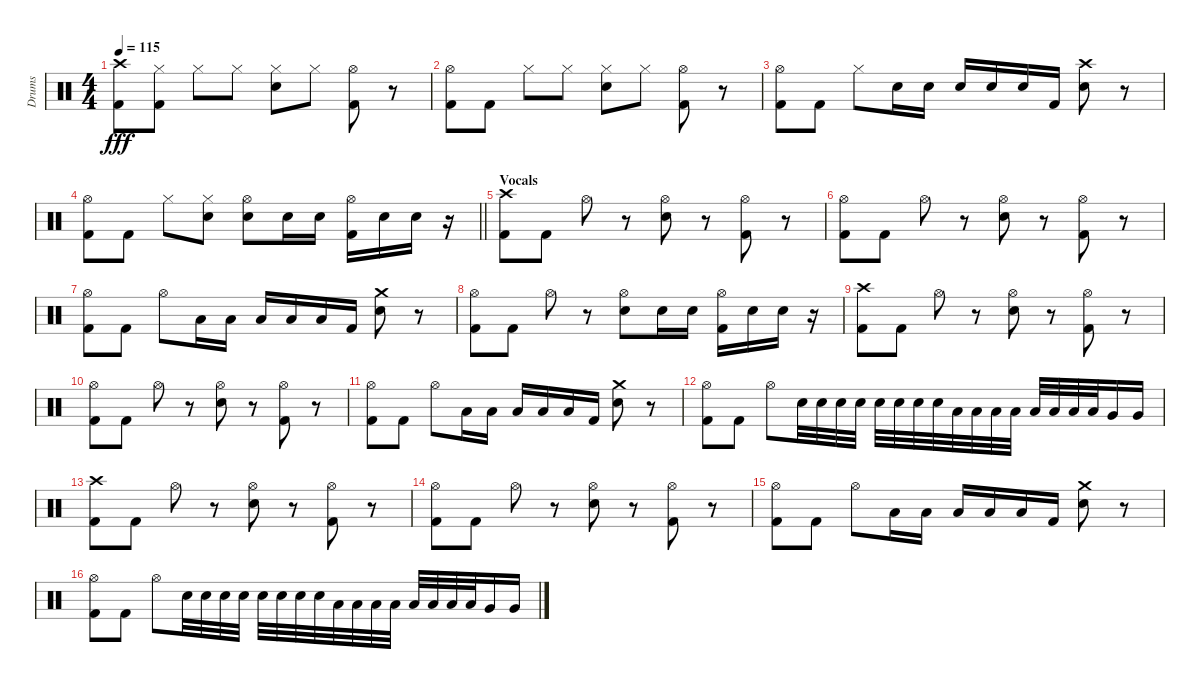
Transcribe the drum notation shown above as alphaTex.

\track ("Drums" "Drums") {instrument percussion}
\staff {score}
\articulation defaults
\ts (4 4)
\tempo 115
\clef neutral
\ks c
("Crash high (hit)" "Kick (hit) 2").8{dy fff} ("Hi-Hat (closed)" "Kick (hit) 2").8 "Hi-Hat (closed)".8 "Hi-Hat (closed)".8 ("Hi-Hat (closed)" "Electric Snare (hit)").8 "Hi-Hat (closed)".8 ("Hi-Hat (open)" "Kick (hit) 2").8 r.8 |
("Hi-Hat (open)" "Kick (hit) 2").8 "Kick (hit) 2".8 "Hi-Hat (closed)".8 "Hi-Hat (closed)".8 ("Hi-Hat (closed)" "Electric Snare (hit)").8 "Hi-Hat (closed)".8 ("Hi-Hat (open)" "Kick (hit) 2").8 r.8 |
("Hi-Hat (open)" "Kick (hit) 2").8 "Kick (hit) 2".8 "Hi-Hat (closed)".8 "Electric Snare (hit)".16 "Electric Snare (hit)".16 "Electric Snare (hit)".16 "Electric Snare (hit)".16 "Electric Snare (hit)".16 "Kick (hit) 2".16 ("Crash high (hit)" "Electric Snare (hit)").8 r.8 |
\barLineRight lightlight
("Hi-Hat (open)" "Kick (hit) 2").8 "Kick (hit) 2".8 "Hi-Hat (closed)".8 ("Hi-Hat (closed)" "Electric Snare (hit)").8 ("Hi-Hat (open)" "Electric Snare (hit)").8 "Electric Snare (hit)".16 "Electric Snare (hit)".16 ("Hi-Hat (open)" "Kick (hit) 2").16 "Electric Snare (hit)".16 "Electric Snare (hit)".16 r.16 |
\section ("" "Vocals")
("Crash high (hit)" "Kick (hit) 2").8 "Kick (hit) 2".8 "Hi-Hat (open)".8 r.8 ("Hi-Hat (open)" "Electric Snare (hit)").8 r.8 ("Hi-Hat (open)" "Kick (hit) 2").8 r.8 |
("Hi-Hat (open)" "Kick (hit) 2").8 "Kick (hit) 2".8 "Hi-Hat (open)".8 r.8 ("Hi-Hat (open)" "Electric Snare (hit)").8 r.8 ("Hi-Hat (open)" "Kick (hit) 2").8 r.8 |
("Hi-Hat (open)" "Kick (hit) 2").8 "Kick (hit) 2".8 "Hi-Hat (open)".8 "Low Tom (hit)".16 "Low Tom (hit)".16 "Low Tom (hit)".16 "Low Tom (hit)".16 "Low Tom (hit)".16 "Kick (hit) 2".16 ("Crash medium (hit)" "Electric Snare (hit)").8 r.8 |
("Hi-Hat (open)" "Kick (hit) 2").8 "Kick (hit) 2".8 "Hi-Hat (open)".8 r.8 ("Hi-Hat (open)" "Electric Snare (hit)").8 "Electric Snare (hit)".16 "Electric Snare (hit)".16 ("Hi-Hat (open)" "Kick (hit) 2").16 "Electric Snare (hit)".16 "Electric Snare (hit)".16 r.16 |
("Crash high (hit)" "Kick (hit) 2").8 "Kick (hit) 2".8 "Hi-Hat (open)".8 r.8 ("Hi-Hat (open)" "Electric Snare (hit)").8 r.8 ("Hi-Hat (open)" "Kick (hit) 2").8 r.8 |
("Hi-Hat (open)" "Kick (hit) 2").8 "Kick (hit) 2".8 "Hi-Hat (open)".8 r.8 ("Hi-Hat (open)" "Electric Snare (hit)").8 r.8 ("Hi-Hat (open)" "Kick (hit) 2").8 r.8 |
("Hi-Hat (open)" "Kick (hit) 2").8 "Kick (hit) 2".8 "Hi-Hat (open)".8 "Low Tom (hit)".16 "Low Tom (hit)".16 "Low Tom (hit)".16 "Low Tom (hit)".16 "Low Tom (hit)".16 "Kick (hit) 2".16 ("Crash medium (hit)" "Electric Snare (hit)").8 r.8 |
("Hi-Hat (open)" "Kick (hit) 2").8 "Kick (hit) 2".8 "Hi-Hat (open)".8 "Electric Snare (hit)".32 "Electric Snare (hit)".32 "Electric Snare (hit)".32 "Electric Snare (hit)".32 "Electric Snare (hit)".32 "Electric Snare (hit)".32 "Electric Snare (hit)".32 "Electric Snare (hit)".32 "Low Tom (hit)".32 "Low Tom (hit)".32 "Low Tom (hit)".32 "Low Tom (hit)".32 "Low Tom (hit)".32 "Low Tom (hit)".32 "Low Tom (hit)".32 "Low Tom (hit)".32 "Very Low Tom (hit)".16 "Very Low Tom (hit)".16 |
("Crash high (hit)" "Kick (hit) 2").8 "Kick (hit) 2".8 "Hi-Hat (open)".8 r.8 ("Hi-Hat (open)" "Electric Snare (hit)").8 r.8 ("Hi-Hat (open)" "Kick (hit) 2").8 r.8 |
("Hi-Hat (open)" "Kick (hit) 2").8 "Kick (hit) 2".8 "Hi-Hat (open)".8 r.8 ("Hi-Hat (open)" "Electric Snare (hit)").8 r.8 ("Hi-Hat (open)" "Kick (hit) 2").8 r.8 |
("Hi-Hat (open)" "Kick (hit) 2").8 "Kick (hit) 2".8 "Hi-Hat (open)".8 "Low Tom (hit)".16 "Low Tom (hit)".16 "Low Tom (hit)".16 "Low Tom (hit)".16 "Low Tom (hit)".16 "Kick (hit) 2".16 ("Crash medium (hit)" "Electric Snare (hit)").8 r.8 |
("Hi-Hat (open)" "Kick (hit) 2").8 "Kick (hit) 2".8 "Hi-Hat (open)".8 "Electric Snare (hit)".32 "Electric Snare (hit)".32 "Electric Snare (hit)".32 "Electric Snare (hit)".32 "Electric Snare (hit)".32 "Electric Snare (hit)".32 "Electric Snare (hit)".32 "Electric Snare (hit)".32 "Low Tom (hit)".32 "Low Tom (hit)".32 "Low Tom (hit)".32 "Low Tom (hit)".32 "Low Tom (hit)".32 "Low Tom (hit)".32 "Low Tom (hit)".32 "Low Tom (hit)".32 "Very Low Tom (hit)".16 "Very Low Tom (hit)".16
